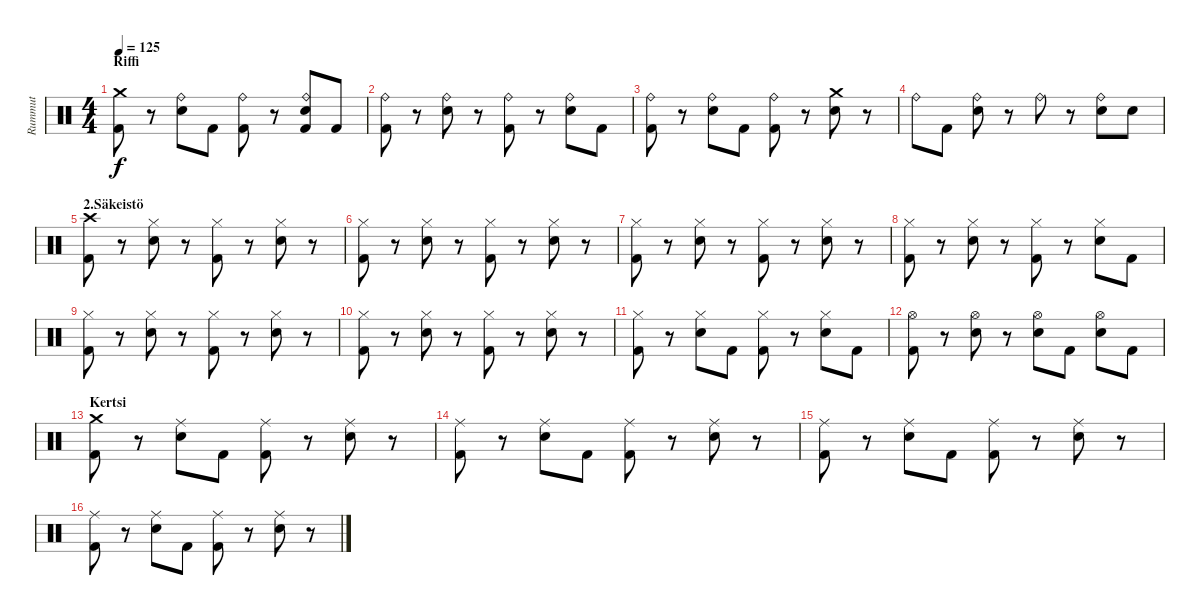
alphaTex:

\track ("Rummut" "Rummut") {instrument percussion}
\staff {score}
\articulation defaults
\ts (4 4)
\section ("" "Riffi")
\tempo 125
\clef neutral
\ks c
("Crash medium (hit)" "Kick (hit) 2").8{dy f} r.8 ("Ride (bell)" "Snare (hit) 2").8 "Kick (hit) 2".8 ("Ride (bell)" "Kick (hit) 2").8 r.8 ("Ride (bell)" "Snare (hit) 2" "Kick (hit) 2").8 "Kick (hit) 2".8 |
("Ride (bell)" "Kick (hit) 2").8 r.8 ("Ride (bell)" "Snare (hit) 2").8 r.8 ("Ride (bell)" "Kick (hit) 2").8 r.8 ("Ride (bell)" "Snare (hit) 2").8 "Kick (hit) 2".8 |
("Ride (bell)" "Kick (hit) 2").8 r.8 ("Ride (bell)" "Snare (hit) 2").8 "Kick (hit) 2".8 ("Ride (bell)" "Kick (hit) 2").8 r.8 ("Crash medium (hit)" "Snare (hit) 2").8 r.8 |
"Ride (bell)".8 "Kick (hit) 2".8 ("Ride (bell)" "Snare (hit) 2").8 r.8 "Ride (bell)".8 r.8 ("Ride (bell)" "Snare (hit) 2").8 "Snare (hit) 2".8 |
\section ("" "2.Säkeistö")
("Crash high (hit)" "Kick (hit) 2").8 r.8 ("Hi-Hat (closed)" "Snare (hit) 2").8 r.8 ("Hi-Hat (closed)" "Kick (hit) 2").8 r.8 ("Hi-Hat (closed)" "Snare (hit) 2").8 r.8 |
("Hi-Hat (closed)" "Kick (hit) 2").8 r.8 ("Hi-Hat (closed)" "Snare (hit) 2").8 r.8 ("Hi-Hat (closed)" "Kick (hit) 2").8 r.8 ("Hi-Hat (closed)" "Snare (hit) 2").8 r.8 |
("Hi-Hat (closed)" "Kick (hit) 2").8 r.8 ("Hi-Hat (closed)" "Snare (hit) 2").8 r.8 ("Hi-Hat (closed)" "Kick (hit) 2").8 r.8 ("Hi-Hat (closed)" "Snare (hit) 2").8 r.8 |
("Hi-Hat (closed)" "Kick (hit) 2").8 r.8 ("Hi-Hat (closed)" "Snare (hit) 2").8 r.8 ("Hi-Hat (closed)" "Kick (hit) 2").8 r.8 ("Hi-Hat (closed)" "Snare (hit) 2").8 "Kick (hit) 2".8 |
("Hi-Hat (closed)" "Kick (hit) 2").8 r.8 ("Hi-Hat (closed)" "Snare (hit) 2").8 r.8 ("Hi-Hat (closed)" "Kick (hit) 2").8 r.8 ("Hi-Hat (closed)" "Snare (hit) 2").8 r.8 |
("Hi-Hat (closed)" "Kick (hit) 2").8 r.8 ("Hi-Hat (closed)" "Snare (hit) 2").8 r.8 ("Hi-Hat (closed)" "Kick (hit) 2").8 r.8 ("Hi-Hat (closed)" "Snare (hit) 2").8 r.8 |
("Hi-Hat (closed)" "Kick (hit) 2").8 r.8 ("Hi-Hat (closed)" "Snare (hit) 2").8 "Kick (hit) 2".8 ("Hi-Hat (closed)" "Kick (hit) 2").8 r.8 ("Hi-Hat (closed)" "Snare (hit) 2").8 "Kick (hit) 2".8 |
("Hi-Hat (open)" "Kick (hit) 2").8 r.8 ("Hi-Hat (open)" "Snare (hit) 2").8 r.8 ("Hi-Hat (open)" "Snare (hit) 2").8 "Kick (hit) 2".8 ("Hi-Hat (open)" "Snare (hit) 2").8 "Kick (hit) 2".8 |
\section ("" "Kertsi")
("Crash medium (hit)" "Kick (hit) 2").8 r.8 ("Ride (middle)" "Snare (hit) 2").8 "Kick (hit) 2".8 ("Ride (middle)" "Kick (hit) 2").8 r.8 ("Ride (middle)" "Snare (hit) 2").8 r.8 |
("Ride (middle)" "Kick (hit) 2").8 r.8 ("Ride (middle)" "Snare (hit) 2").8 "Kick (hit) 2".8 ("Ride (middle)" "Kick (hit) 2").8 r.8 ("Ride (middle)" "Snare (hit) 2").8 r.8 |
("Ride (middle)" "Kick (hit) 2").8 r.8 ("Ride (middle)" "Snare (hit) 2").8 "Kick (hit) 2".8 ("Ride (middle)" "Kick (hit) 2").8 r.8 ("Ride (middle)" "Snare (hit) 2").8 r.8 |
("Ride (middle)" "Kick (hit) 2").8 r.8 ("Ride (middle)" "Snare (hit) 2").8 "Kick (hit) 2".8 ("Ride (middle)" "Kick (hit) 2").8 r.8 ("Ride (middle)" "Snare (hit) 2").8 r.8
